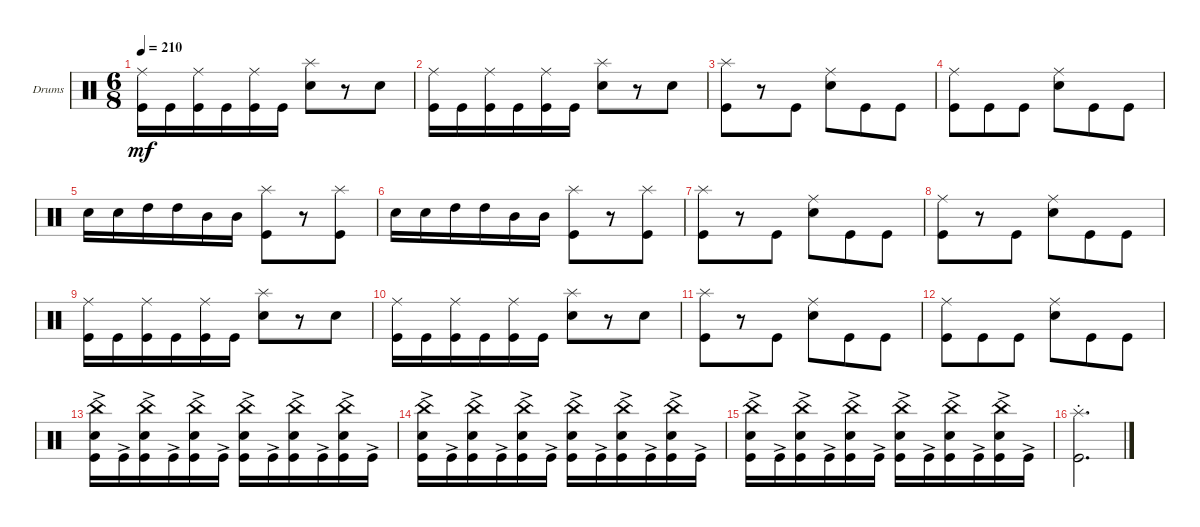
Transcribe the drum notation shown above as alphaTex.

\bracketExtendMode groupsimilarinstruments
\firstSystemTrackNameOrientation horizontal
\otherSystemsTrackNameOrientation horizontal
\track ("Drumkit" "Drums") {instrument percussion}
\staff {score}
\articulation defaults
\ts (6 8)
\tempo 210
\clef neutral
\ks c
("Kick (hit)" "Ride (middle)").16{dy mf} "Kick (hit)".16 ("Kick (hit)" "Ride (middle)").16 "Kick (hit)".16 ("Kick (hit)" "Ride (middle)").16 "Kick (hit)".16 ("Snare (hit) 2" "Splash (hit)").8 r.8 "Snare (hit) 2".8 |
("Kick (hit)" "Ride (middle)").16 "Kick (hit)".16 ("Kick (hit)" "Ride (middle)").16 "Kick (hit)".16 ("Kick (hit)" "Ride (middle)").16 "Kick (hit)".16 ("Snare (hit) 2" "Splash (hit)").8 r.8 "Snare (hit) 2".8 |
("Kick (hit)" "Splash (hit)").8 r.8 "Kick (hit)".8 ("Snare (hit) 2" "Ride (middle)").8 "Kick (hit)".8 "Kick (hit)".8 |
("Kick (hit)" "Ride (middle)").8 "Kick (hit)".8 "Kick (hit)".8 ("Snare (hit) 2" "Ride (middle)").8 "Kick (hit)".8 "Kick (hit)".8 |
"Snare (hit) 2".16 "Snare (hit) 2".16 "High Tom (hit)".16 "High Tom (hit)".16 "Mid Tom (hit)".16 "Mid Tom (hit)".16 ("Kick (hit)" "Splash (hit)").8 r.8 ("Kick (hit)" "Splash (hit)").8 |
"Snare (hit) 2".16 "Snare (hit) 2".16 "High Tom (hit)".16 "High Tom (hit)".16 "Mid Tom (hit)".16 "Mid Tom (hit)".16 ("Kick (hit)" "Splash (hit)").8 r.8 ("Kick (hit)" "Splash (hit)").8 |
("Kick (hit)" "Splash (hit)").8 r.8 "Kick (hit)".8 ("Snare (hit) 2" "Ride (middle)").8 "Kick (hit)".8 "Kick (hit)".8 |
("Kick (hit)" "Ride (middle)").8 r.8 "Kick (hit)".8 ("Snare (hit) 2" "Ride (middle)").8 "Kick (hit)".8 "Kick (hit)".8 |
("Kick (hit)" "Ride (middle)").16 "Kick (hit)".16 ("Kick (hit)" "Ride (middle)").16 "Kick (hit)".16 ("Kick (hit)" "Ride (middle)").16 "Kick (hit)".16 ("Snare (hit) 2" "Splash (hit)").8 r.8 "Snare (hit) 2".8 |
("Kick (hit)" "Ride (middle)").16 "Kick (hit)".16 ("Kick (hit)" "Ride (middle)").16 "Kick (hit)".16 ("Kick (hit)" "Ride (middle)").16 "Kick (hit)".16 ("Snare (hit) 2" "Splash (hit)").8 r.8 "Snare (hit) 2".8 |
("Kick (hit)" "Splash (hit)").8 r.8 "Kick (hit)".8 ("Snare (hit) 2" "Ride (middle)").8 "Kick (hit)".8 "Kick (hit)".8 |
("Kick (hit)" "Ride (middle)").8 "Kick (hit)".8 "Kick (hit)".8 ("Snare (hit) 2" "Ride (middle)").8 "Kick (hit)".8 "Kick (hit)".8 |
("Kick (hit)"{ac} "Snare (hit) 2"{ac} "China (hit)"{ac}).16 "Kick (hit)"{ac}.16 ("Kick (hit)"{ac} "Snare (hit) 2"{ac} "China (hit)"{ac}).16 "Kick (hit)"{ac}.16 ("Kick (hit)"{ac} "Snare (hit) 2"{ac} "China (hit)"{ac}).16 "Kick (hit)"{ac}.16 ("Kick (hit)"{ac} "Snare (hit) 2"{ac} "China (hit)"{ac}).16 "Kick (hit)"{ac}.16 ("Kick (hit)"{ac} "Snare (hit) 2"{ac} "China (hit)"{ac}).16 "Kick (hit)"{ac}.16 ("Kick (hit)"{ac} "Snare (hit) 2"{ac} "China (hit)"{ac}).16 "Kick (hit)"{ac}.16 |
("Kick (hit)"{ac} "Snare (hit) 2"{ac} "China (hit)"{ac}).16 "Kick (hit)"{ac}.16 ("Kick (hit)"{ac} "Snare (hit) 2"{ac} "China (hit)"{ac}).16 "Kick (hit)"{ac}.16 ("Kick (hit)"{ac} "Snare (hit) 2"{ac} "China (hit)"{ac}).16 "Kick (hit)"{ac}.16 ("Kick (hit)"{ac} "Snare (hit) 2"{ac} "China (hit)"{ac}).16 "Kick (hit)"{ac}.16 ("Kick (hit)"{ac} "Snare (hit) 2"{ac} "China (hit)"{ac}).16 "Kick (hit)"{ac}.16 ("Kick (hit)"{ac} "Snare (hit) 2"{ac} "China (hit)"{ac}).16 "Kick (hit)"{ac}.16 |
("Kick (hit)"{ac} "Snare (hit) 2"{ac} "China (hit)"{ac}).16 "Kick (hit)"{ac}.16 ("Kick (hit)"{ac} "Snare (hit) 2"{ac} "China (hit)"{ac}).16 "Kick (hit)"{ac}.16 ("Kick (hit)"{ac} "Snare (hit) 2"{ac} "China (hit)"{ac}).16 "Kick (hit)"{ac}.16 ("Kick (hit)"{ac} "Snare (hit) 2"{ac} "China (hit)"{ac}).16 "Kick (hit)"{ac}.16 ("Kick (hit)"{ac} "Snare (hit) 2"{ac} "China (hit)"{ac}).16 "Kick (hit)"{ac}.16 ("Kick (hit)"{ac} "Snare (hit) 2"{ac} "China (hit)"{ac}).16 "Kick (hit)"{ac}.16 |
("Kick (hit)" "Splash (hit)"{st}).2{d}
